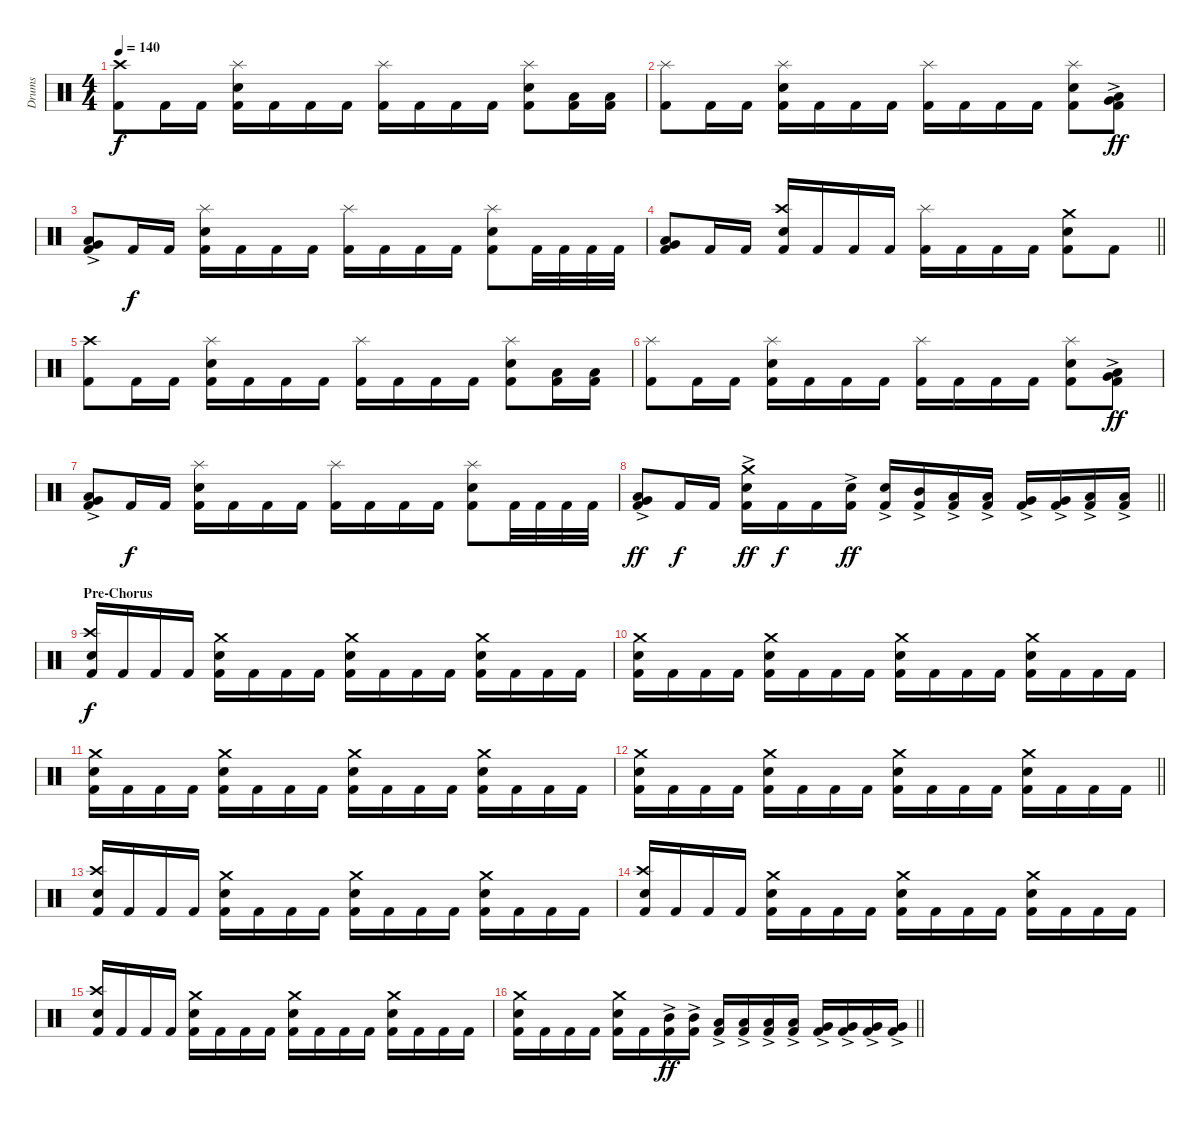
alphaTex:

\track ("Drums" "Drums") {instrument percussion}
\staff {score}
\articulation defaults
\ts (4 4)
\section ("" "")
\tempo 140
\clef neutral
\ks c
("Kick (hit) 2" "Crash high (hit)").8{dy f} "Kick (hit) 2".16 "Kick (hit) 2".16 ("Kick (hit) 2" "Snare (hit) 2" "Splash (hit)").16 "Kick (hit) 2".16 "Kick (hit) 2".16 "Kick (hit) 2".16 ("Kick (hit) 2" "Splash (hit)").16 "Kick (hit) 2".16 "Kick (hit) 2".16 "Kick (hit) 2".16 ("Kick (hit) 2" "Snare (hit) 2" "Splash (hit)").8 ("Kick (hit) 2" "Low Tom (hit)").16 ("Kick (hit) 2" "Low Tom (hit)").16 |
("Kick (hit) 2" "Splash (hit)").8 "Kick (hit) 2".16 "Kick (hit) 2".16 ("Kick (hit) 2" "Snare (hit) 2" "Splash (hit)").16 "Kick (hit) 2".16 "Kick (hit) 2".16 "Kick (hit) 2".16 ("Kick (hit) 2" "Splash (hit)").16 "Kick (hit) 2".16 "Kick (hit) 2".16 "Kick (hit) 2".16 ("Kick (hit) 2" "Snare (hit) 2" "Splash (hit)").8 ("Kick (hit) 2" "Low Tom (hit)"{ac} "Very Low Tom (hit)"{ac}).8{dy ff} |
("Kick (hit) 2" "Very Low Tom (hit)"{ac} "Low Floor Tom (hit)"{ac}).8 "Kick (hit) 2".16{dy f} "Kick (hit) 2".16 ("Kick (hit) 2" "Snare (hit) 2" "Splash (hit)").16 "Kick (hit) 2".16 "Kick (hit) 2".16 "Kick (hit) 2".16 ("Kick (hit) 2" "Splash (hit)").16 "Kick (hit) 2".16 "Kick (hit) 2".16 "Kick (hit) 2".16 ("Kick (hit) 2" "Snare (hit) 2" "Splash (hit)").8 "Kick (hit) 2".32 "Kick (hit) 2".32 "Kick (hit) 2".32 "Kick (hit) 2".32 |
\barLineRight lightlight
("Kick (hit) 2" "Very Low Tom (hit)" "Low Floor Tom (hit)").8 "Kick (hit) 2".16 "Kick (hit) 2".16 ("Kick (hit) 2" "Snare (hit) 2" "Crash high (hit)").16 "Kick (hit) 2".16 "Kick (hit) 2".16 "Kick (hit) 2".16 ("Kick (hit) 2" "Splash (hit)").16 "Kick (hit) 2".16 "Kick (hit) 2".16 "Kick (hit) 2".16 ("Kick (hit) 2" "Snare (hit) 2" "Crash medium (hit)").8 "Kick (hit) 2".8 |
\section ("" "")
("Kick (hit) 2" "Crash high (hit)").8 "Kick (hit) 2".16 "Kick (hit) 2".16 ("Kick (hit) 2" "Snare (hit) 2" "Splash (hit)").16 "Kick (hit) 2".16 "Kick (hit) 2".16 "Kick (hit) 2".16 ("Kick (hit) 2" "Splash (hit)").16 "Kick (hit) 2".16 "Kick (hit) 2".16 "Kick (hit) 2".16 ("Kick (hit) 2" "Snare (hit) 2" "Splash (hit)").8 ("Kick (hit) 2" "Low Tom (hit)").16 ("Kick (hit) 2" "Low Tom (hit)").16 |
("Kick (hit) 2" "Splash (hit)").8 "Kick (hit) 2".16 "Kick (hit) 2".16 ("Kick (hit) 2" "Snare (hit) 2" "Splash (hit)").16 "Kick (hit) 2".16 "Kick (hit) 2".16 "Kick (hit) 2".16 ("Kick (hit) 2" "Splash (hit)").16 "Kick (hit) 2".16 "Kick (hit) 2".16 "Kick (hit) 2".16 ("Kick (hit) 2" "Snare (hit) 2" "Splash (hit)").8 ("Kick (hit) 2" "Low Tom (hit)"{ac} "Very Low Tom (hit)"{ac}).8{dy ff} |
("Kick (hit) 2" "Very Low Tom (hit)"{ac} "Low Floor Tom (hit)"{ac}).8 "Kick (hit) 2".16{dy f} "Kick (hit) 2".16 ("Kick (hit) 2" "Snare (hit) 2" "Splash (hit)").16 "Kick (hit) 2".16 "Kick (hit) 2".16 "Kick (hit) 2".16 ("Kick (hit) 2" "Splash (hit)").16 "Kick (hit) 2".16 "Kick (hit) 2".16 "Kick (hit) 2".16 ("Kick (hit) 2" "Snare (hit) 2" "Splash (hit)").8 "Kick (hit) 2".32 "Kick (hit) 2".32 "Kick (hit) 2".32 "Kick (hit) 2".32 |
\barLineRight lightlight
("Kick (hit) 2" "Very Low Tom (hit)"{ac} "Low Floor Tom (hit)"{ac}).8{dy ff} "Kick (hit) 2".16{dy f} "Kick (hit) 2".16 ("Kick (hit) 2" "Snare (hit) 2"{ac} "Crash medium (hit)").16{dy ff} "Kick (hit) 2".16{dy f} "Kick (hit) 2".16 ("Kick (hit) 2" "Snare (hit) 2"{ac}).16{dy ff} ("Kick (hit) 2" "Snare (hit) 2"{ac}).16 ("Kick (hit) 2" "Mid Tom (hit)"{ac}).16 ("Kick (hit) 2" "Low Tom (hit)"{ac}).16 ("Kick (hit) 2" "Low Tom (hit)"{ac}).16 ("Kick (hit) 2" "Very Low Tom (hit)"{ac}).16 ("Kick (hit) 2" "Very Low Tom (hit)"{ac}).16 ("Kick (hit) 2" "Low Floor Tom (hit)"{ac}).16 ("Kick (hit) 2" "Low Floor Tom (hit)"{ac}).16 |
\section ("" "Pre-Chorus")
("Kick (hit) 2" "Snare (hit) 2" "Crash high (hit)").16{dy f volume 12} "Kick (hit) 2".16 "Kick (hit) 2".16 "Kick (hit) 2".16 ("Kick (hit) 2" "Snare (hit) 2" "Crash medium (hit)").16 "Kick (hit) 2".16 "Kick (hit) 2".16 "Kick (hit) 2".16 ("Kick (hit) 2" "Snare (hit) 2" "Crash medium (hit)").16 "Kick (hit) 2".16 "Kick (hit) 2".16 "Kick (hit) 2".16 ("Kick (hit) 2" "Snare (hit) 2" "Crash medium (hit)").16 "Kick (hit) 2".16 "Kick (hit) 2".16 "Kick (hit) 2".16 |
("Kick (hit) 2" "Snare (hit) 2" "Crash medium (hit)").16 "Kick (hit) 2".16 "Kick (hit) 2".16 "Kick (hit) 2".16 ("Kick (hit) 2" "Snare (hit) 2" "Crash medium (hit)").16 "Kick (hit) 2".16 "Kick (hit) 2".16 "Kick (hit) 2".16 ("Kick (hit) 2" "Snare (hit) 2" "Crash medium (hit)").16 "Kick (hit) 2".16 "Kick (hit) 2".16 "Kick (hit) 2".16 ("Kick (hit) 2" "Snare (hit) 2" "Crash medium (hit)").16 "Kick (hit) 2".16 "Kick (hit) 2".16 "Kick (hit) 2".16 |
("Kick (hit) 2" "Snare (hit) 2" "Crash medium (hit)").16 "Kick (hit) 2".16 "Kick (hit) 2".16 "Kick (hit) 2".16 ("Kick (hit) 2" "Snare (hit) 2" "Crash medium (hit)").16 "Kick (hit) 2".16 "Kick (hit) 2".16 "Kick (hit) 2".16 ("Kick (hit) 2" "Snare (hit) 2" "Crash medium (hit)").16 "Kick (hit) 2".16 "Kick (hit) 2".16 "Kick (hit) 2".16 ("Kick (hit) 2" "Snare (hit) 2" "Crash medium (hit)").16 "Kick (hit) 2".16 "Kick (hit) 2".16 "Kick (hit) 2".16 |
\barLineRight lightlight
("Kick (hit) 2" "Snare (hit) 2" "Crash medium (hit)").16 "Kick (hit) 2".16 "Kick (hit) 2".16 "Kick (hit) 2".16 ("Kick (hit) 2" "Snare (hit) 2" "Crash medium (hit)").16 "Kick (hit) 2".16 "Kick (hit) 2".16 "Kick (hit) 2".16 ("Kick (hit) 2" "Snare (hit) 2" "Crash medium (hit)").16 "Kick (hit) 2".16 "Kick (hit) 2".16 "Kick (hit) 2".16 ("Kick (hit) 2" "Snare (hit) 2" "Crash medium (hit)").16 "Kick (hit) 2".16 "Kick (hit) 2".16 "Kick (hit) 2".16 |
\section ("" "")
("Kick (hit) 2" "Snare (hit) 2" "Crash high (hit)").16 "Kick (hit) 2".16 "Kick (hit) 2".16 "Kick (hit) 2".16 ("Kick (hit) 2" "Snare (hit) 2" "Crash medium (hit)").16 "Kick (hit) 2".16 "Kick (hit) 2".16 "Kick (hit) 2".16 ("Kick (hit) 2" "Snare (hit) 2" "Crash medium (hit)").16 "Kick (hit) 2".16 "Kick (hit) 2".16 "Kick (hit) 2".16 ("Kick (hit) 2" "Snare (hit) 2" "Crash medium (hit)").16 "Kick (hit) 2".16 "Kick (hit) 2".16 "Kick (hit) 2".16 |
("Kick (hit) 2" "Snare (hit) 2" "Crash high (hit)").16 "Kick (hit) 2".16 "Kick (hit) 2".16 "Kick (hit) 2".16 ("Kick (hit) 2" "Snare (hit) 2" "Crash medium (hit)").16 "Kick (hit) 2".16 "Kick (hit) 2".16 "Kick (hit) 2".16 ("Kick (hit) 2" "Snare (hit) 2" "Crash medium (hit)").16 "Kick (hit) 2".16 "Kick (hit) 2".16 "Kick (hit) 2".16 ("Kick (hit) 2" "Snare (hit) 2" "Crash medium (hit)").16 "Kick (hit) 2".16 "Kick (hit) 2".16 "Kick (hit) 2".16 |
("Kick (hit) 2" "Snare (hit) 2" "Crash high (hit)").16 "Kick (hit) 2".16 "Kick (hit) 2".16 "Kick (hit) 2".16 ("Kick (hit) 2" "Snare (hit) 2" "Crash medium (hit)").16 "Kick (hit) 2".16 "Kick (hit) 2".16 "Kick (hit) 2".16 ("Kick (hit) 2" "Snare (hit) 2" "Crash medium (hit)").16 "Kick (hit) 2".16 "Kick (hit) 2".16 "Kick (hit) 2".16 ("Kick (hit) 2" "Snare (hit) 2" "Crash medium (hit)").16 "Kick (hit) 2".16 "Kick (hit) 2".16 "Kick (hit) 2".16 |
\barLineRight lightlight
("Kick (hit) 2" "Snare (hit) 2" "Crash medium (hit)").16 "Kick (hit) 2".16 "Kick (hit) 2".16 "Kick (hit) 2".16 ("Kick (hit) 2" "Snare (hit) 2" "Crash medium (hit)").16 "Kick (hit) 2".16 ("Kick (hit) 2" "Mid Tom (hit)"{ac}).16{dy ff} ("Kick (hit) 2" "Mid Tom (hit)"{ac}).16 ("Kick (hit) 2" "Low Tom (hit)"{ac}).16 ("Kick (hit) 2" "Low Tom (hit)"{ac}).16 ("Kick (hit) 2" "Low Tom (hit)"{ac}).16 ("Kick (hit) 2" "Low Tom (hit)"{ac}).16 ("Kick (hit) 2" "Very Low Tom (hit)"{ac}).16 ("Kick (hit) 2" "Very Low Tom (hit)"{ac}).16 ("Kick (hit) 2" "Very Low Tom (hit)"{ac}).16 ("Kick (hit) 2" "Very Low Tom (hit)"{ac}).16
